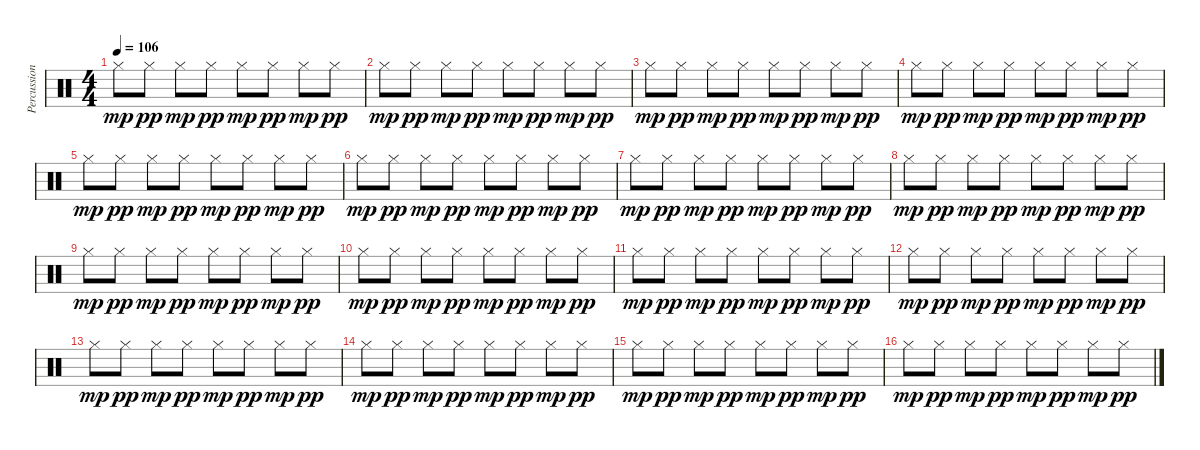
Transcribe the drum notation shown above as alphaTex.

\track ("Percussion" "Percussion") {instrument percussion}
\staff {score}
\articulation defaults
\ts (4 4)
\tempo 106
\clef neutral
\ks c "Hi-Hat (closed)".8{dy mp} "Hi-Hat (closed)".8{dy pp} "Hi-Hat (closed)".8{dy mp} "Hi-Hat (closed)".8{dy pp} "Hi-Hat (closed)".8{dy mp} "Hi-Hat (closed)".8{dy pp} "Hi-Hat (closed)".8{dy mp} "Hi-Hat (closed)".8{dy pp}
|
"Hi-Hat (closed)".8{dy mp} "Hi-Hat (closed)".8{dy pp} "Hi-Hat (closed)".8{dy mp} "Hi-Hat (closed)".8{dy pp} "Hi-Hat (closed)".8{dy mp} "Hi-Hat (closed)".8{dy pp} "Hi-Hat (closed)".8{dy mp} "Hi-Hat (closed)".8{dy pp} |
"Hi-Hat (closed)".8{dy mp} "Hi-Hat (closed)".8{dy pp} "Hi-Hat (closed)".8{dy mp} "Hi-Hat (closed)".8{dy pp} "Hi-Hat (closed)".8{dy mp} "Hi-Hat (closed)".8{dy pp} "Hi-Hat (closed)".8{dy mp} "Hi-Hat (closed)".8{dy pp} |
"Hi-Hat (closed)".8{dy mp} "Hi-Hat (closed)".8{dy pp} "Hi-Hat (closed)".8{dy mp} "Hi-Hat (closed)".8{dy pp} "Hi-Hat (closed)".8{dy mp} "Hi-Hat (closed)".8{dy pp} "Hi-Hat (closed)".8{dy mp} "Hi-Hat (closed)".8{dy pp} |
"Hi-Hat (closed)".8{dy mp} "Hi-Hat (closed)".8{dy pp} "Hi-Hat (closed)".8{dy mp} "Hi-Hat (closed)".8{dy pp} "Hi-Hat (closed)".8{dy mp} "Hi-Hat (closed)".8{dy pp} "Hi-Hat (closed)".8{dy mp} "Hi-Hat (closed)".8{dy pp} |
"Hi-Hat (closed)".8{dy mp} "Hi-Hat (closed)".8{dy pp} "Hi-Hat (closed)".8{dy mp} "Hi-Hat (closed)".8{dy pp} "Hi-Hat (closed)".8{dy mp} "Hi-Hat (closed)".8{dy pp} "Hi-Hat (closed)".8{dy mp} "Hi-Hat (closed)".8{dy pp} |
"Hi-Hat (closed)".8{dy mp} "Hi-Hat (closed)".8{dy pp} "Hi-Hat (closed)".8{dy mp} "Hi-Hat (closed)".8{dy pp} "Hi-Hat (closed)".8{dy mp} "Hi-Hat (closed)".8{dy pp} "Hi-Hat (closed)".8{dy mp} "Hi-Hat (closed)".8{dy pp} |
"Hi-Hat (closed)".8{dy mp} "Hi-Hat (closed)".8{dy pp} "Hi-Hat (closed)".8{dy mp} "Hi-Hat (closed)".8{dy pp} "Hi-Hat (closed)".8{dy mp} "Hi-Hat (closed)".8{dy pp} "Hi-Hat (closed)".8{dy mp} "Hi-Hat (closed)".8{dy pp} |
"Hi-Hat (closed)".8{dy mp} "Hi-Hat (closed)".8{dy pp} "Hi-Hat (closed)".8{dy mp} "Hi-Hat (closed)".8{dy pp} "Hi-Hat (closed)".8{dy mp} "Hi-Hat (closed)".8{dy pp} "Hi-Hat (closed)".8{dy mp} "Hi-Hat (closed)".8{dy pp} |
"Hi-Hat (closed)".8{dy mp} "Hi-Hat (closed)".8{dy pp} "Hi-Hat (closed)".8{dy mp} "Hi-Hat (closed)".8{dy pp} "Hi-Hat (closed)".8{dy mp} "Hi-Hat (closed)".8{dy pp} "Hi-Hat (closed)".8{dy mp} "Hi-Hat (closed)".8{dy pp} |
"Hi-Hat (closed)".8{dy mp} "Hi-Hat (closed)".8{dy pp} "Hi-Hat (closed)".8{dy mp} "Hi-Hat (closed)".8{dy pp} "Hi-Hat (closed)".8{dy mp} "Hi-Hat (closed)".8{dy pp} "Hi-Hat (closed)".8{dy mp} "Hi-Hat (closed)".8{dy pp} |
"Hi-Hat (closed)".8{dy mp} "Hi-Hat (closed)".8{dy pp} "Hi-Hat (closed)".8{dy mp} "Hi-Hat (closed)".8{dy pp} "Hi-Hat (closed)".8{dy mp} "Hi-Hat (closed)".8{dy pp} "Hi-Hat (closed)".8{dy mp} "Hi-Hat (closed)".8{dy pp} |
"Hi-Hat (closed)".8{dy mp} "Hi-Hat (closed)".8{dy pp} "Hi-Hat (closed)".8{dy mp} "Hi-Hat (closed)".8{dy pp} "Hi-Hat (closed)".8{dy mp} "Hi-Hat (closed)".8{dy pp} "Hi-Hat (closed)".8{dy mp} "Hi-Hat (closed)".8{dy pp} |
"Hi-Hat (closed)".8{dy mp} "Hi-Hat (closed)".8{dy pp} "Hi-Hat (closed)".8{dy mp} "Hi-Hat (closed)".8{dy pp} "Hi-Hat (closed)".8{dy mp} "Hi-Hat (closed)".8{dy pp} "Hi-Hat (closed)".8{dy mp} "Hi-Hat (closed)".8{dy pp} |
"Hi-Hat (closed)".8{dy mp} "Hi-Hat (closed)".8{dy pp} "Hi-Hat (closed)".8{dy mp} "Hi-Hat (closed)".8{dy pp} "Hi-Hat (closed)".8{dy mp} "Hi-Hat (closed)".8{dy pp} "Hi-Hat (closed)".8{dy mp} "Hi-Hat (closed)".8{dy pp} |
"Hi-Hat (closed)".8{dy mp} "Hi-Hat (closed)".8{dy pp} "Hi-Hat (closed)".8{dy mp} "Hi-Hat (closed)".8{dy pp} "Hi-Hat (closed)".8{dy mp} "Hi-Hat (closed)".8{dy pp} "Hi-Hat (closed)".8{dy mp} "Hi-Hat (closed)".8{dy pp}
